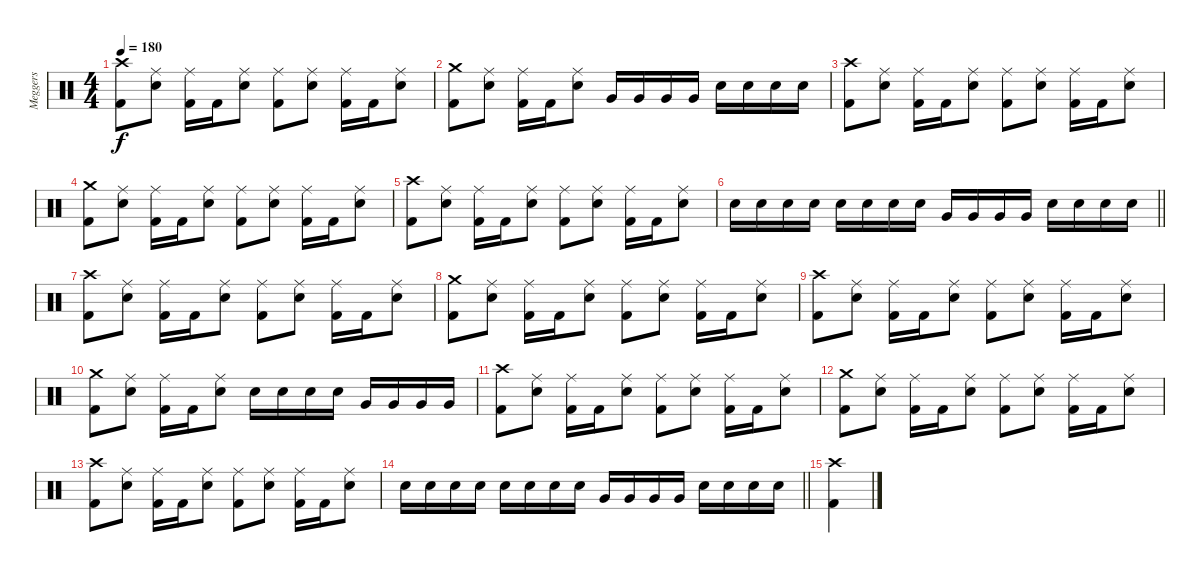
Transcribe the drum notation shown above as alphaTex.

\track ("Meggers" "Meggers") {instrument percussion}
\staff {score}
\articulation defaults
\ts (4 4)
\tempo 180
\clef neutral
\ks c
("Crash high (hit)" "Kick (hit) 2").8{dy f} ("Ride (middle)" "Snare (hit) 2").8 ("Ride (middle)" "Kick (hit) 2").16 "Kick (hit) 2".16 ("Ride (middle)" "Snare (hit) 2").8 ("Ride (middle)" "Kick (hit) 2").8 ("Ride (middle)" "Snare (hit) 2").8 ("Ride (middle)" "Kick (hit) 2").16 "Kick (hit) 2".16 ("Ride (middle)" "Snare (hit) 2").8 |
("Crash medium (hit)" "Kick (hit) 2").8 ("Ride (middle)" "Snare (hit) 2").8 ("Ride (middle)" "Kick (hit) 2").16 "Kick (hit) 2".16 ("Ride (middle)" "Snare (hit) 2").8 "Very Low Tom (hit)".16 "Very Low Tom (hit)".16 "Very Low Tom (hit)".16 "Very Low Tom (hit)".16 "Snare (hit) 2".16 "Snare (hit) 2".16 "Snare (hit) 2".16 "Snare (hit) 2".16 |
("Crash high (hit)" "Kick (hit) 2").8 ("Ride (middle)" "Snare (hit) 2").8 ("Ride (middle)" "Kick (hit) 2").16 "Kick (hit) 2".16 ("Ride (middle)" "Snare (hit) 2").8 ("Ride (middle)" "Kick (hit) 2").8 ("Ride (middle)" "Snare (hit) 2").8 ("Ride (middle)" "Kick (hit) 2").16 "Kick (hit) 2".16 ("Ride (middle)" "Snare (hit) 2").8 |
("Crash medium (hit)" "Kick (hit) 2").8 ("Ride (middle)" "Snare (hit) 2").8 ("Ride (middle)" "Kick (hit) 2").16 "Kick (hit) 2".16 ("Ride (middle)" "Snare (hit) 2").8 ("Ride (middle)" "Kick (hit) 2").8 ("Ride (middle)" "Snare (hit) 2").8 ("Ride (middle)" "Kick (hit) 2").16 "Kick (hit) 2".16 ("Ride (middle)" "Snare (hit) 2").8 |
("Crash high (hit)" "Kick (hit) 2").8 ("Ride (middle)" "Snare (hit) 2").8 ("Ride (middle)" "Kick (hit) 2").16 "Kick (hit) 2".16 ("Ride (middle)" "Snare (hit) 2").8 ("Ride (middle)" "Kick (hit) 2").8 ("Ride (middle)" "Snare (hit) 2").8 ("Ride (middle)" "Kick (hit) 2").16 "Kick (hit) 2".16 ("Ride (middle)" "Snare (hit) 2").8 |
\barLineRight lightlight "Snare (hit) 2".16 "Snare (hit) 2".16 "Snare (hit) 2".16 "Snare (hit) 2".16 "Snare (hit) 2".16 "Snare (hit) 2".16 "Snare (hit) 2".16 "Snare (hit) 2".16 "Very Low Tom (hit)".16 "Very Low Tom (hit)".16 "Very Low Tom (hit)".16 "Very Low Tom (hit)".16 "Snare (hit) 2".16 "Snare (hit) 2".16 "Snare (hit) 2".16 "Snare (hit) 2".16
|
("Crash high (hit)" "Kick (hit) 2").8 ("Ride (middle)" "Snare (hit) 2").8 ("Ride (middle)" "Kick (hit) 2").16 "Kick (hit) 2".16 ("Ride (middle)" "Snare (hit) 2").8 ("Ride (middle)" "Kick (hit) 2").8 ("Ride (middle)" "Snare (hit) 2").8 ("Ride (middle)" "Kick (hit) 2").16 "Kick (hit) 2".16 ("Ride (middle)" "Snare (hit) 2").8 |
("Crash medium (hit)" "Kick (hit) 2").8 ("Ride (middle)" "Snare (hit) 2").8 ("Ride (middle)" "Kick (hit) 2").16 "Kick (hit) 2".16 ("Ride (middle)" "Snare (hit) 2").8 ("Ride (middle)" "Kick (hit) 2").8 ("Ride (middle)" "Snare (hit) 2").8 ("Ride (middle)" "Kick (hit) 2").16 "Kick (hit) 2".16 ("Ride (middle)" "Snare (hit) 2").8 |
("Crash high (hit)" "Kick (hit) 2").8 ("Ride (middle)" "Snare (hit) 2").8 ("Ride (middle)" "Kick (hit) 2").16 "Kick (hit) 2".16 ("Ride (middle)" "Snare (hit) 2").8 ("Ride (middle)" "Kick (hit) 2").8 ("Ride (middle)" "Snare (hit) 2").8 ("Ride (middle)" "Kick (hit) 2").16 "Kick (hit) 2".16 ("Ride (middle)" "Snare (hit) 2").8 |
("Crash medium (hit)" "Kick (hit) 2").8 ("Ride (middle)" "Snare (hit) 2").8 ("Ride (middle)" "Kick (hit) 2").16 "Kick (hit) 2".16 ("Ride (middle)" "Snare (hit) 2").8 "Snare (hit) 2".16 "Snare (hit) 2".16 "Snare (hit) 2".16 "Snare (hit) 2".16 "Very Low Tom (hit)".16 "Very Low Tom (hit)".16 "Very Low Tom (hit)".16 "Very Low Tom (hit)".16 |
("Crash high (hit)" "Kick (hit) 2").8 ("Ride (middle)" "Snare (hit) 2").8 ("Ride (middle)" "Kick (hit) 2").16 "Kick (hit) 2".16 ("Ride (middle)" "Snare (hit) 2").8 ("Ride (middle)" "Kick (hit) 2").8 ("Ride (middle)" "Snare (hit) 2").8 ("Ride (middle)" "Kick (hit) 2").16 "Kick (hit) 2".16 ("Ride (middle)" "Snare (hit) 2").8 |
("Crash medium (hit)" "Kick (hit) 2").8 ("Ride (middle)" "Snare (hit) 2").8 ("Ride (middle)" "Kick (hit) 2").16 "Kick (hit) 2".16 ("Ride (middle)" "Snare (hit) 2").8 ("Ride (middle)" "Kick (hit) 2").8 ("Ride (middle)" "Snare (hit) 2").8 ("Ride (middle)" "Kick (hit) 2").16 "Kick (hit) 2".16 ("Ride (middle)" "Snare (hit) 2").8 |
("Crash high (hit)" "Kick (hit) 2").8 ("Ride (middle)" "Snare (hit) 2").8 ("Ride (middle)" "Kick (hit) 2").16 "Kick (hit) 2".16 ("Ride (middle)" "Snare (hit) 2").8 ("Ride (middle)" "Kick (hit) 2").8 ("Ride (middle)" "Snare (hit) 2").8 ("Ride (middle)" "Kick (hit) 2").16 "Kick (hit) 2".16 ("Ride (middle)" "Snare (hit) 2").8 |
\barLineRight lightlight "Snare (hit) 2".16 "Snare (hit) 2".16 "Snare (hit) 2".16 "Snare (hit) 2".16 "Snare (hit) 2".16 "Snare (hit) 2".16 "Snare (hit) 2".16 "Snare (hit) 2".16 "Very Low Tom (hit)".16 "Very Low Tom (hit)".16 "Very Low Tom (hit)".16 "Very Low Tom (hit)".16 "Snare (hit) 2".16 "Snare (hit) 2".16 "Snare (hit) 2".16 "Snare (hit) 2".16
|
("Crash high (hit)" "Kick (hit) 2").4
